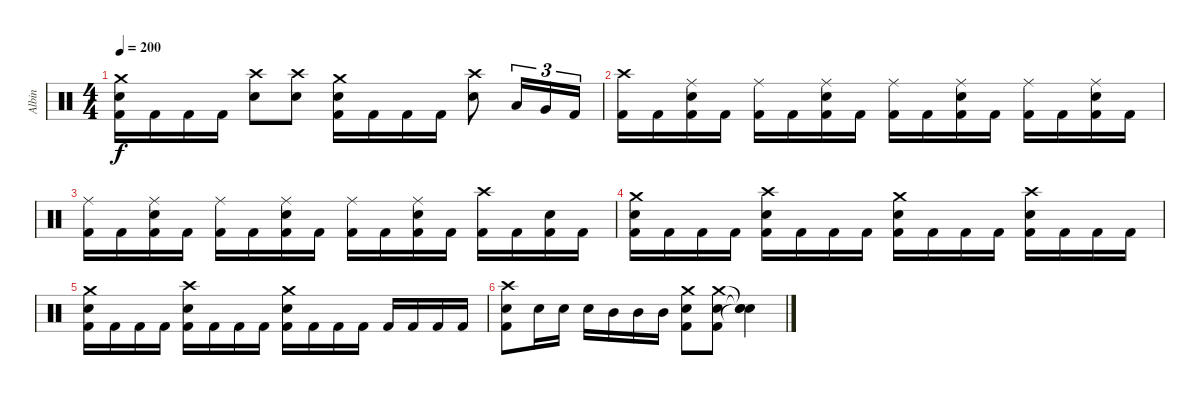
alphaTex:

\track ("Albin" "Albin") {instrument percussion}
\staff {score}
\articulation defaults
\ts (4 4)
\tempo 200
\clef neutral
\ks c
("Crash medium (hit)" "Snare (hit) 2" "Kick (hit) 2").16{dy f} "Kick (hit) 2".16 "Kick (hit) 2".16 "Kick (hit) 2".16 ("Crash high (hit)" "Snare (hit) 2").8 ("Crash high (hit)" "Snare (hit) 2").8 ("Crash medium (hit)" "Snare (hit) 2" "Kick (hit) 2").16 "Kick (hit) 2".16 "Kick (hit) 2".16 "Kick (hit) 2".16 ("Crash high (hit)" "Snare (hit) 2").8 "Low Tom (hit)".16{tu (3 2)} "Very Low Tom (hit)".16{tu (3 2)} "Kick (hit) 2".16{tu (3 2)} |
("Crash high (hit)" "Kick (hit) 2").16 "Kick (hit) 2".16 ("Ride (middle)" "Snare (hit) 2" "Kick (hit) 2").16 "Kick (hit) 2".16 ("Ride (middle)" "Kick (hit) 2").16 "Kick (hit) 2".16 ("Ride (middle)" "Snare (hit) 2" "Kick (hit) 2").16 "Kick (hit) 2".16 ("Ride (middle)" "Kick (hit) 2").16 "Kick (hit) 2".16 ("Ride (middle)" "Snare (hit) 2" "Kick (hit) 2").16 "Kick (hit) 2".16 ("Ride (middle)" "Kick (hit) 2").16 "Kick (hit) 2".16 ("Ride (middle)" "Snare (hit) 2" "Kick (hit) 2").16 "Kick (hit) 2".16 |
("Ride (middle)" "Kick (hit) 2").16 "Kick (hit) 2".16 ("Ride (middle)" "Snare (hit) 2" "Kick (hit) 2").16 "Kick (hit) 2".16 ("Ride (middle)" "Kick (hit) 2").16 "Kick (hit) 2".16 ("Ride (middle)" "Snare (hit) 2" "Kick (hit) 2").16 "Kick (hit) 2".16 ("Ride (middle)" "Kick (hit) 2").16 "Kick (hit) 2".16 ("Ride (middle)" "Snare (hit) 2" "Kick (hit) 2").16 "Kick (hit) 2".16 ("Crash high (hit)" "Kick (hit) 2").16 "Kick (hit) 2".16 ("Snare (hit) 2" "Kick (hit) 2").16 "Kick (hit) 2".16 |
("Crash medium (hit)" "Snare (hit) 2" "Kick (hit) 2").16 "Kick (hit) 2".16 "Kick (hit) 2".16 "Kick (hit) 2".16 ("Crash high (hit)" "Snare (hit) 2" "Kick (hit) 2").16 "Kick (hit) 2".16 "Kick (hit) 2".16 "Kick (hit) 2".16 ("Crash medium (hit)" "Snare (hit) 2" "Kick (hit) 2").16 "Kick (hit) 2".16 "Kick (hit) 2".16 "Kick (hit) 2".16 ("Crash high (hit)" "Snare (hit) 2" "Kick (hit) 2").16 "Kick (hit) 2".16 "Kick (hit) 2".16 "Kick (hit) 2".16 |
("Crash medium (hit)" "Snare (hit) 2" "Kick (hit) 2").16 "Kick (hit) 2".16 "Kick (hit) 2".16 "Kick (hit) 2".16 ("Crash high (hit)" "Snare (hit) 2" "Kick (hit) 2").16 "Kick (hit) 2".16 "Kick (hit) 2".16 "Kick (hit) 2".16 ("Crash medium (hit)" "Snare (hit) 2" "Kick (hit) 2").16 "Kick (hit) 2".16 "Kick (hit) 2".16 "Kick (hit) 2".16 "Kick (hit) 2".16 "Kick (hit) 2".16 "Kick (hit) 2".16 "Kick (hit) 2".16 |
("Crash high (hit)" "Snare (hit) 2" "Kick (hit) 2").8 "Snare (hit) 2".16 "Snare (hit) 2".16 "Snare (hit) 2".16 "Mid Tom (hit)".16 "Mid Tom (hit)".16 "Mid Tom (hit)".16 ("Crash medium (hit)" "Snare (hit) 2" "Kick (hit) 2").8 ("Crash medium (hit)" "Snare (hit) 2" "Kick (hit) 2").8 ("Snare (hit)"{t} "Snare (hit)"{t} "Snare (hit)"{t}).4
